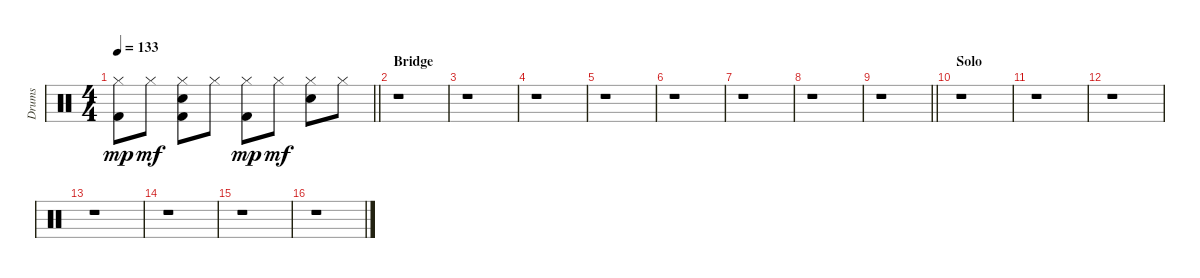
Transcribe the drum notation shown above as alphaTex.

\track ("Drums" "Drums") {instrument percussion}
\staff {score}
\articulation defaults
\ts (4 4)
\tempo 133
\clef neutral
\barLineRight lightlight
\ks c
("Kick (hit) 2" "Hi-Hat (closed)").8{dy mp} "Hi-Hat (closed)".8{dy mf} ("Kick (hit) 2" "Snare (hit) 2" "Hi-Hat (closed)").8 "Hi-Hat (closed)".8 ("Kick (hit) 2" "Hi-Hat (closed)").8{dy mp} "Hi-Hat (closed)".8{dy mf} ("Snare (hit) 2" "Hi-Hat (closed)").8 "Hi-Hat (closed)".8 |
\section ("" "Bridge")
r.1 |
r.1 |
r.1 |
r.1 |
r.1 |
r.1 |
r.1 |
\barLineRight lightlight
r.1 |
\section ("" "Solo")
r.1 |
r.1 |
r.1 |
r.1 |
r.1 |
r.1 |
r.1
